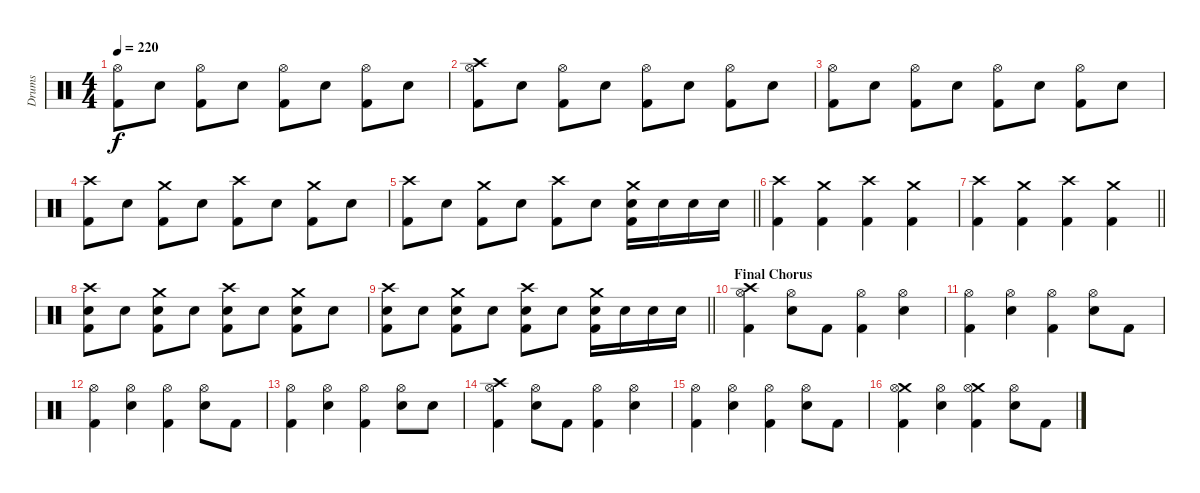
\track ("Drums" "Drums") {instrument percussion}
\staff {score}
\articulation defaults
\ts (4 4)
\tempo 220
\clef neutral
\ks c
("Hi-Hat (open)" "Kick (hit) 2").8{dy f} "Snare (hit) 2".8 ("Hi-Hat (open)" "Kick (hit) 2").8 "Snare (hit) 2".8 ("Hi-Hat (open)" "Kick (hit) 2").8 "Snare (hit) 2".8 ("Hi-Hat (open)" "Kick (hit) 2").8 "Snare (hit) 2".8 |
("Crash high (hit)" "Hi-Hat (open)" "Kick (hit) 2").8 "Snare (hit) 2".8 ("Hi-Hat (open)" "Kick (hit) 2").8 "Snare (hit) 2".8 ("Hi-Hat (open)" "Kick (hit) 2").8 "Snare (hit) 2".8 ("Hi-Hat (open)" "Kick (hit) 2").8 "Snare (hit) 2".8 |
("Hi-Hat (open)" "Kick (hit) 2").8 "Snare (hit) 2".8 ("Hi-Hat (open)" "Kick (hit) 2").8 "Snare (hit) 2".8 ("Hi-Hat (open)" "Kick (hit) 2").8 "Snare (hit) 2".8 ("Hi-Hat (open)" "Kick (hit) 2").8 "Snare (hit) 2".8 |
("Crash high (hit)" "Kick (hit) 2").8 "Snare (hit) 2".8 ("Crash medium (hit)" "Kick (hit) 2").8 "Snare (hit) 2".8 ("Crash high (hit)" "Kick (hit) 2").8 "Snare (hit) 2".8 ("Crash medium (hit)" "Kick (hit) 2").8 "Snare (hit) 2".8 |
\barLineRight lightlight
("Crash high (hit)" "Kick (hit) 2").8 "Snare (hit) 2".8 ("Crash medium (hit)" "Kick (hit) 2").8 "Snare (hit) 2".8 ("Crash high (hit)" "Kick (hit) 2").8 "Snare (hit) 2".8 ("Crash medium (hit)" "Snare (hit) 2" "Kick (hit) 2").16 "Snare (hit) 2".16 "Snare (hit) 2".16 "Snare (hit) 2".16 |
("Crash high (hit)" "Kick (hit) 2").4 ("Crash medium (hit)" "Kick (hit) 2").4 ("Crash high (hit)" "Kick (hit) 2").4 ("Crash medium (hit)" "Kick (hit) 2").4 |
\barLineRight lightlight
("Crash high (hit)" "Kick (hit) 2").4 ("Crash medium (hit)" "Kick (hit) 2").4 ("Crash high (hit)" "Kick (hit) 2").4 ("Crash medium (hit)" "Kick (hit) 2").4 |
("Crash high (hit)" "Snare (hit) 2" "Kick (hit) 2").8 "Snare (hit) 2".8 ("Crash medium (hit)" "Snare (hit) 2" "Kick (hit) 2").8 "Snare (hit) 2".8 ("Crash high (hit)" "Snare (hit) 2" "Kick (hit) 2").8 "Snare (hit) 2".8 ("Crash medium (hit)" "Snare (hit) 2" "Kick (hit) 2").8 "Snare (hit) 2".8 |
\barLineRight lightlight
("Crash high (hit)" "Snare (hit) 2" "Kick (hit) 2").8 "Snare (hit) 2".8 ("Crash medium (hit)" "Snare (hit) 2" "Kick (hit) 2").8 "Snare (hit) 2".8 ("Crash high (hit)" "Snare (hit) 2" "Kick (hit) 2").8 "Snare (hit) 2".8 ("Crash medium (hit)" "Snare (hit) 2" "Kick (hit) 2").16 "Snare (hit) 2".16 "Snare (hit) 2".16 "Snare (hit) 2".16 |
\section ("" "Final Chorus")
("Crash high (hit)" "Hi-Hat (open)" "Kick (hit) 2").4 ("Hi-Hat (open)" "Snare (hit) 2").8 "Kick (hit) 2".8 ("Hi-Hat (open)" "Kick (hit) 2").4 ("Hi-Hat (open)" "Snare (hit) 2").4 |
("Hi-Hat (open)" "Kick (hit) 2").4 ("Hi-Hat (open)" "Snare (hit) 2").4 ("Hi-Hat (open)" "Kick (hit) 2").4 ("Hi-Hat (open)" "Snare (hit) 2").8 "Kick (hit) 2".8 |
("Hi-Hat (open)" "Kick (hit) 2").4 ("Hi-Hat (open)" "Snare (hit) 2").4 ("Hi-Hat (open)" "Kick (hit) 2").4 ("Hi-Hat (open)" "Snare (hit) 2").8 "Kick (hit) 2".8 |
("Hi-Hat (open)" "Kick (hit) 2").4 ("Hi-Hat (open)" "Snare (hit) 2").4 ("Hi-Hat (open)" "Kick (hit) 2").4 ("Hi-Hat (open)" "Snare (hit) 2").8 "Snare (hit) 2".8 |
("Crash high (hit)" "Hi-Hat (open)" "Kick (hit) 2").4 ("Hi-Hat (open)" "Snare (hit) 2").8 "Kick (hit) 2".8 ("Hi-Hat (open)" "Kick (hit) 2").4 ("Hi-Hat (open)" "Snare (hit) 2").4 |
("Hi-Hat (open)" "Kick (hit) 2").4 ("Hi-Hat (open)" "Snare (hit) 2").4 ("Hi-Hat (open)" "Kick (hit) 2").4 ("Hi-Hat (open)" "Snare (hit) 2").8 "Kick (hit) 2".8 |
("Crash medium (hit)" "Hi-Hat (open)" "Kick (hit) 2").4 ("Hi-Hat (open)" "Snare (hit) 2").4 ("Crash medium (hit)" "Hi-Hat (open)" "Kick (hit) 2").4 ("Hi-Hat (open)" "Snare (hit) 2").8 "Kick (hit) 2".8
